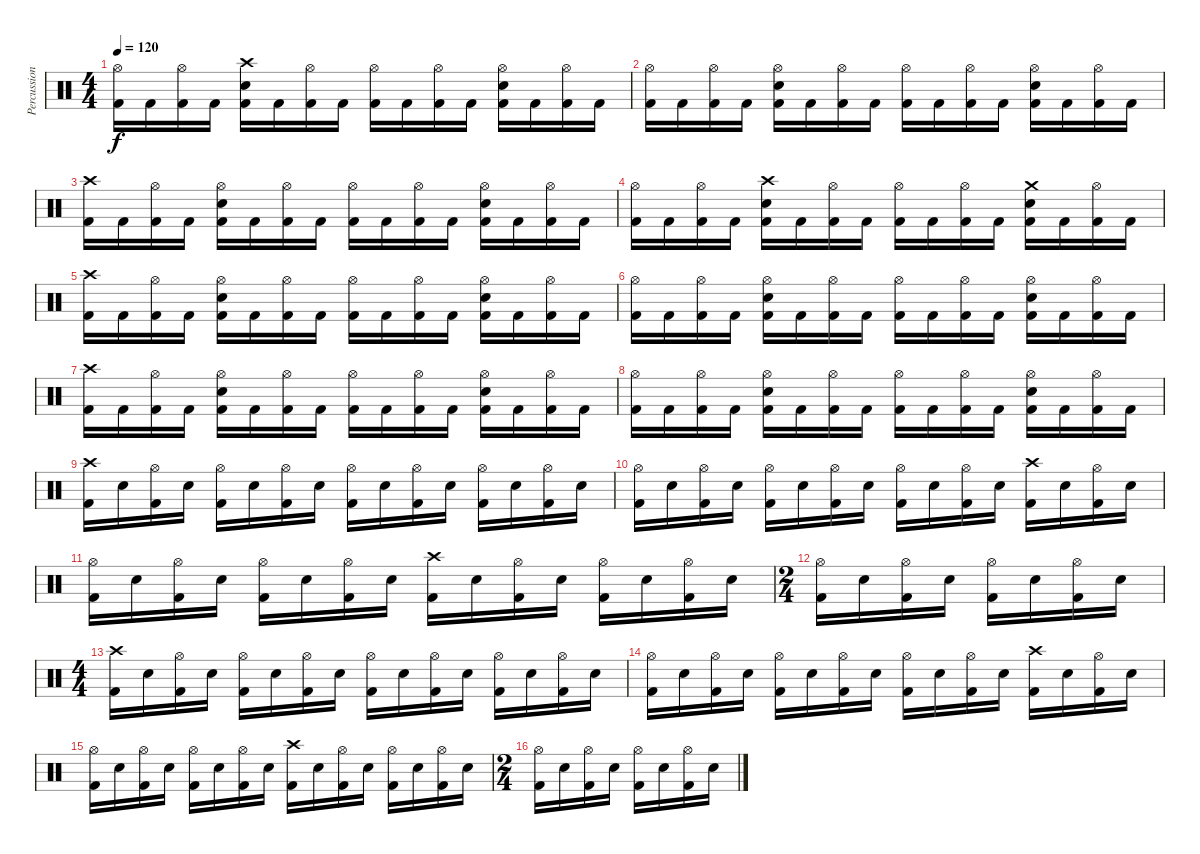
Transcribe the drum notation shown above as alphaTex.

\track ("Percussion" "Percussion") {instrument percussion}
\staff {score}
\articulation defaults
\ts (4 4)
\tempo 120
\clef neutral
\ks c
("Hi-Hat (open)" "Kick (hit) 2").16{dy f} "Kick (hit) 2".16 ("Hi-Hat (open)" "Kick (hit) 2").16 "Kick (hit) 2".16 ("Crash high (hit)" "Snare (hit) 2" "Kick (hit) 2").16 "Kick (hit) 2".16 ("Hi-Hat (open)" "Kick (hit) 2").16 "Kick (hit) 2".16 ("Hi-Hat (open)" "Kick (hit) 2").16 "Kick (hit) 2".16 ("Hi-Hat (open)" "Kick (hit) 2").16 "Kick (hit) 2".16 ("Hi-Hat (open)" "Snare (hit) 2" "Kick (hit) 2").16 "Kick (hit) 2".16 ("Hi-Hat (open)" "Kick (hit) 2").16 "Kick (hit) 2".16 |
("Hi-Hat (open)" "Kick (hit) 2").16 "Kick (hit) 2".16 ("Hi-Hat (open)" "Kick (hit) 2").16 "Kick (hit) 2".16 ("Hi-Hat (open)" "Snare (hit) 2" "Kick (hit) 2").16 "Kick (hit) 2".16 ("Hi-Hat (open)" "Kick (hit) 2").16 "Kick (hit) 2".16 ("Hi-Hat (open)" "Kick (hit) 2").16 "Kick (hit) 2".16 ("Hi-Hat (open)" "Kick (hit) 2").16 "Kick (hit) 2".16 ("Hi-Hat (open)" "Snare (hit) 2" "Kick (hit) 2").16 "Kick (hit) 2".16 ("Hi-Hat (open)" "Kick (hit) 2").16 "Kick (hit) 2".16 |
("Crash high (hit)" "Kick (hit) 2").16 "Kick (hit) 2".16 ("Hi-Hat (open)" "Kick (hit) 2").16 "Kick (hit) 2".16 ("Hi-Hat (open)" "Snare (hit) 2" "Kick (hit) 2").16 "Kick (hit) 2".16 ("Hi-Hat (open)" "Kick (hit) 2").16 "Kick (hit) 2".16 ("Hi-Hat (open)" "Kick (hit) 2").16 "Kick (hit) 2".16 ("Hi-Hat (open)" "Kick (hit) 2").16 "Kick (hit) 2".16 ("Hi-Hat (open)" "Snare (hit) 2" "Kick (hit) 2").16 "Kick (hit) 2".16 ("Hi-Hat (open)" "Kick (hit) 2").16 "Kick (hit) 2".16 |
("Hi-Hat (open)" "Kick (hit) 2").16 "Kick (hit) 2".16 ("Hi-Hat (open)" "Kick (hit) 2").16 "Kick (hit) 2".16 ("Crash high (hit)" "Snare (hit) 2" "Kick (hit) 2").16 "Kick (hit) 2".16 ("Hi-Hat (open)" "Kick (hit) 2").16 "Kick (hit) 2".16 ("Hi-Hat (open)" "Kick (hit) 2").16 "Kick (hit) 2".16 ("Hi-Hat (open)" "Kick (hit) 2").16 "Kick (hit) 2".16 ("Crash medium (hit)" "Snare (hit) 2" "Kick (hit) 2").16 "Kick (hit) 2".16 ("Hi-Hat (open)" "Kick (hit) 2").16 "Kick (hit) 2".16 |
("Crash high (hit)" "Kick (hit) 2").16 "Kick (hit) 2".16 ("Hi-Hat (open)" "Kick (hit) 2").16 "Kick (hit) 2".16 ("Hi-Hat (open)" "Snare (hit) 2" "Kick (hit) 2").16 "Kick (hit) 2".16 ("Hi-Hat (open)" "Kick (hit) 2").16 "Kick (hit) 2".16 ("Hi-Hat (open)" "Kick (hit) 2").16 "Kick (hit) 2".16 ("Hi-Hat (open)" "Kick (hit) 2").16 "Kick (hit) 2".16 ("Hi-Hat (open)" "Snare (hit) 2" "Kick (hit) 2").16 "Kick (hit) 2".16 ("Hi-Hat (open)" "Kick (hit) 2").16 "Kick (hit) 2".16 |
("Hi-Hat (open)" "Kick (hit) 2").16 "Kick (hit) 2".16 ("Hi-Hat (open)" "Kick (hit) 2").16 "Kick (hit) 2".16 ("Hi-Hat (open)" "Snare (hit) 2" "Kick (hit) 2").16 "Kick (hit) 2".16 ("Hi-Hat (open)" "Kick (hit) 2").16 "Kick (hit) 2".16 ("Hi-Hat (open)" "Kick (hit) 2").16 "Kick (hit) 2".16 ("Hi-Hat (open)" "Kick (hit) 2").16 "Kick (hit) 2".16 ("Hi-Hat (open)" "Snare (hit) 2" "Kick (hit) 2").16 "Kick (hit) 2".16 ("Hi-Hat (open)" "Kick (hit) 2").16 "Kick (hit) 2".16 |
("Crash high (hit)" "Kick (hit) 2").16 "Kick (hit) 2".16 ("Hi-Hat (open)" "Kick (hit) 2").16 "Kick (hit) 2".16 ("Hi-Hat (open)" "Snare (hit) 2" "Kick (hit) 2").16 "Kick (hit) 2".16 ("Hi-Hat (open)" "Kick (hit) 2").16 "Kick (hit) 2".16 ("Hi-Hat (open)" "Kick (hit) 2").16 "Kick (hit) 2".16 ("Hi-Hat (open)" "Kick (hit) 2").16 "Kick (hit) 2".16 ("Hi-Hat (open)" "Snare (hit) 2" "Kick (hit) 2").16 "Kick (hit) 2".16 ("Hi-Hat (open)" "Kick (hit) 2").16 "Kick (hit) 2".16 |
("Hi-Hat (open)" "Kick (hit) 2").16 "Kick (hit) 2".16 ("Hi-Hat (open)" "Kick (hit) 2").16 "Kick (hit) 2".16 ("Hi-Hat (open)" "Snare (hit) 2" "Kick (hit) 2").16 "Kick (hit) 2".16 ("Hi-Hat (open)" "Kick (hit) 2").16 "Kick (hit) 2".16 ("Hi-Hat (open)" "Kick (hit) 2").16 "Kick (hit) 2".16 ("Hi-Hat (open)" "Kick (hit) 2").16 "Kick (hit) 2".16 ("Hi-Hat (open)" "Snare (hit) 2" "Kick (hit) 2").16 "Kick (hit) 2".16 ("Hi-Hat (open)" "Kick (hit) 2").16 "Kick (hit) 2".16 |
("Crash high (hit)" "Kick (hit) 2").16 "Snare (hit) 2".16 ("Hi-Hat (open)" "Kick (hit) 2").16 "Snare (hit) 2".16 ("Hi-Hat (open)" "Kick (hit) 2").16 "Snare (hit) 2".16 ("Hi-Hat (open)" "Kick (hit) 2").16 "Snare (hit) 2".16 ("Hi-Hat (open)" "Kick (hit) 2").16 "Snare (hit) 2".16 ("Hi-Hat (open)" "Kick (hit) 2").16 "Snare (hit) 2".16 ("Hi-Hat (open)" "Kick (hit) 2").16 "Snare (hit) 2".16 ("Hi-Hat (open)" "Kick (hit) 2").16 "Snare (hit) 2".16 |
("Hi-Hat (open)" "Kick (hit) 2").16 "Snare (hit) 2".16 ("Hi-Hat (open)" "Kick (hit) 2").16 "Snare (hit) 2".16 ("Hi-Hat (open)" "Kick (hit) 2").16 "Snare (hit) 2".16 ("Hi-Hat (open)" "Kick (hit) 2").16 "Snare (hit) 2".16 ("Hi-Hat (open)" "Kick (hit) 2").16 "Snare (hit) 2".16 ("Hi-Hat (open)" "Kick (hit) 2").16 "Snare (hit) 2".16 ("Crash high (hit)" "Kick (hit) 2").16 "Snare (hit) 2".16 ("Hi-Hat (open)" "Kick (hit) 2").16 "Snare (hit) 2".16 |
("Hi-Hat (open)" "Kick (hit) 2").16 "Snare (hit) 2".16 ("Hi-Hat (open)" "Kick (hit) 2").16 "Snare (hit) 2".16 ("Hi-Hat (open)" "Kick (hit) 2").16 "Snare (hit) 2".16 ("Hi-Hat (open)" "Kick (hit) 2").16 "Snare (hit) 2".16 ("Crash high (hit)" "Kick (hit) 2").16 "Snare (hit) 2".16 ("Hi-Hat (open)" "Kick (hit) 2").16 "Snare (hit) 2".16 ("Hi-Hat (open)" "Kick (hit) 2").16 "Snare (hit) 2".16 ("Hi-Hat (open)" "Kick (hit) 2").16 "Snare (hit) 2".16 |
\ts (2 4)
("Hi-Hat (open)" "Kick (hit) 2").16 "Snare (hit) 2".16 ("Hi-Hat (open)" "Kick (hit) 2").16 "Snare (hit) 2".16 ("Hi-Hat (open)" "Kick (hit) 2").16 "Snare (hit) 2".16 ("Hi-Hat (open)" "Kick (hit) 2").16 "Snare (hit) 2".16 |
\ts (4 4)
("Crash high (hit)" "Kick (hit) 2").16 "Snare (hit) 2".16 ("Hi-Hat (open)" "Kick (hit) 2").16 "Snare (hit) 2".16 ("Hi-Hat (open)" "Kick (hit) 2").16 "Snare (hit) 2".16 ("Hi-Hat (open)" "Kick (hit) 2").16 "Snare (hit) 2".16 ("Hi-Hat (open)" "Kick (hit) 2").16 "Snare (hit) 2".16 ("Hi-Hat (open)" "Kick (hit) 2").16 "Snare (hit) 2".16 ("Hi-Hat (open)" "Kick (hit) 2").16 "Snare (hit) 2".16 ("Hi-Hat (open)" "Kick (hit) 2").16 "Snare (hit) 2".16 |
("Hi-Hat (open)" "Kick (hit) 2").16 "Snare (hit) 2".16 ("Hi-Hat (open)" "Kick (hit) 2").16 "Snare (hit) 2".16 ("Hi-Hat (open)" "Kick (hit) 2").16 "Snare (hit) 2".16 ("Hi-Hat (open)" "Kick (hit) 2").16 "Snare (hit) 2".16 ("Hi-Hat (open)" "Kick (hit) 2").16 "Snare (hit) 2".16 ("Hi-Hat (open)" "Kick (hit) 2").16 "Snare (hit) 2".16 ("Crash high (hit)" "Kick (hit) 2").16 "Snare (hit) 2".16 ("Hi-Hat (open)" "Kick (hit) 2").16 "Snare (hit) 2".16 |
("Hi-Hat (open)" "Kick (hit) 2").16 "Snare (hit) 2".16 ("Hi-Hat (open)" "Kick (hit) 2").16 "Snare (hit) 2".16 ("Hi-Hat (open)" "Kick (hit) 2").16 "Snare (hit) 2".16 ("Hi-Hat (open)" "Kick (hit) 2").16 "Snare (hit) 2".16 ("Crash high (hit)" "Kick (hit) 2").16 "Snare (hit) 2".16 ("Hi-Hat (open)" "Kick (hit) 2").16 "Snare (hit) 2".16 ("Hi-Hat (open)" "Kick (hit) 2").16 "Snare (hit) 2".16 ("Hi-Hat (open)" "Kick (hit) 2").16 "Snare (hit) 2".16 |
\ts (2 4)
("Hi-Hat (open)" "Kick (hit) 2").16 "Snare (hit) 2".16 ("Hi-Hat (open)" "Kick (hit) 2").16 "Snare (hit) 2".16 ("Hi-Hat (open)" "Kick (hit) 2").16 "Snare (hit) 2".16 ("Hi-Hat (open)" "Kick (hit) 2").16 "Snare (hit) 2".16
